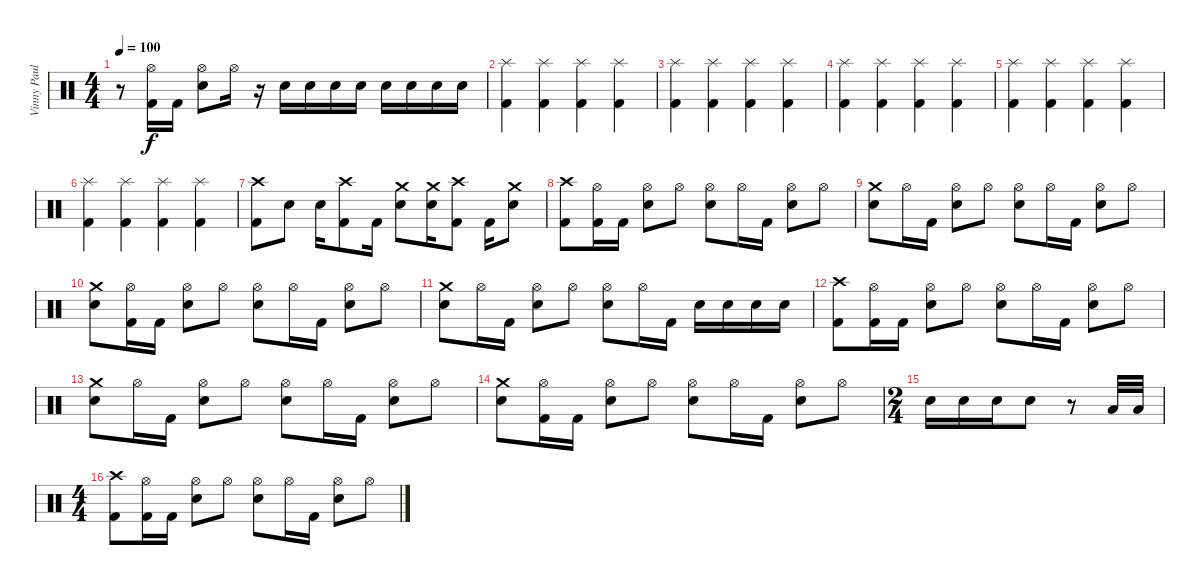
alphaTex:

\track ("Vinny Paul" "Vinny Paul") {instrument percussion}
\staff {score}
\articulation defaults
\ts (4 4)
\tempo 100
\clef neutral
\ks c
r.8{dy f} ("Hi-Hat (open)" "Kick (hit) 2").16 "Kick (hit) 2".16 ("Hi-Hat (open)" "Snare (hit) 2").8 "Hi-Hat (open)".16 r.16 "Snare (hit) 2".16 "Snare (hit) 2".16 "Snare (hit) 2".16 "Snare (hit) 2".16 "Snare (hit) 2".16 "Snare (hit) 2".16 "Snare (hit) 2".16 "Snare (hit) 2".16 |
("Splash (hit)" "Kick (hit) 2").4 ("Splash (hit)" "Kick (hit) 2").4 ("Splash (hit)" "Kick (hit) 2").4 ("Splash (hit)" "Kick (hit) 2").4 |
("Splash (hit)" "Kick (hit) 2").4 ("Splash (hit)" "Kick (hit) 2").4 ("Splash (hit)" "Kick (hit) 2").4 ("Splash (hit)" "Kick (hit) 2").4 |
("Splash (hit)" "Kick (hit) 2").4 ("Splash (hit)" "Kick (hit) 2").4 ("Splash (hit)" "Kick (hit) 2").4 ("Splash (hit)" "Kick (hit) 2").4 |
("Splash (hit)" "Kick (hit) 2").4 ("Splash (hit)" "Kick (hit) 2").4 ("Splash (hit)" "Kick (hit) 2").4 ("Splash (hit)" "Kick (hit) 2").4 |
("Splash (hit)" "Kick (hit) 2").4 ("Splash (hit)" "Kick (hit) 2").4 ("Splash (hit)" "Kick (hit) 2").4 ("Splash (hit)" "Kick (hit) 2").4 |
("Crash high (hit)" "Kick (hit) 2").8 "Snare (hit) 2".8 "Snare (hit) 2".16 ("Crash high (hit)" "Kick (hit) 2").8 "Kick (hit) 2".16 ("Crash medium (hit)" "Snare (hit) 2").8 ("Crash medium (hit)" "Snare (hit) 2").16 ("Crash high (hit)" "Kick (hit) 2").8 "Kick (hit) 2".16 ("Crash medium (hit)" "Snare (hit) 2").8 |
("Crash high (hit)" "Kick (hit) 2").8 ("Hi-Hat (open)" "Kick (hit) 2").16 "Kick (hit) 2".16 ("Hi-Hat (open)" "Snare (hit) 2").8 "Hi-Hat (open)".8 ("Hi-Hat (open)" "Snare (hit) 2").8 "Hi-Hat (open)".16 "Kick (hit) 2".16 ("Hi-Hat (open)" "Snare (hit) 2").8 "Hi-Hat (open)".8 |
("Crash medium (hit)" "Snare (hit) 2").8 "Hi-Hat (open)".16 "Kick (hit) 2".16 ("Hi-Hat (open)" "Snare (hit) 2").8 "Hi-Hat (open)".8 ("Hi-Hat (open)" "Snare (hit) 2").8 "Hi-Hat (open)".16 "Kick (hit) 2".16 ("Hi-Hat (open)" "Snare (hit) 2").8 "Hi-Hat (open)".8 |
("Crash medium (hit)" "Snare (hit) 2").8 ("Hi-Hat (open)" "Kick (hit) 2").16 "Kick (hit) 2".16 ("Hi-Hat (open)" "Snare (hit) 2").8 "Hi-Hat (open)".8 ("Hi-Hat (open)" "Snare (hit) 2").8 "Hi-Hat (open)".16 "Kick (hit) 2".16 ("Hi-Hat (open)" "Snare (hit) 2").8 "Hi-Hat (open)".8 |
("Crash medium (hit)" "Snare (hit) 2").8 "Hi-Hat (open)".16 "Kick (hit) 2".16 ("Hi-Hat (open)" "Snare (hit) 2").8 "Hi-Hat (open)".8 ("Hi-Hat (open)" "Snare (hit) 2").8 "Hi-Hat (open)".16 "Kick (hit) 2".16 "Snare (hit) 2".16 "Snare (hit) 2".16 "Snare (hit) 2".16 "Snare (hit) 2".16 |
("Crash high (hit)" "Kick (hit) 2").8 ("Hi-Hat (open)" "Kick (hit) 2").16 "Kick (hit) 2".16 ("Hi-Hat (open)" "Snare (hit) 2").8 "Hi-Hat (open)".8 ("Hi-Hat (open)" "Snare (hit) 2").8 "Hi-Hat (open)".16 "Kick (hit) 2".16 ("Hi-Hat (open)" "Snare (hit) 2").8 "Hi-Hat (open)".8 |
("Crash medium (hit)" "Snare (hit) 2").8 "Hi-Hat (open)".16 "Kick (hit) 2".16 ("Hi-Hat (open)" "Snare (hit) 2").8 "Hi-Hat (open)".8 ("Hi-Hat (open)" "Snare (hit) 2").8 "Hi-Hat (open)".16 "Kick (hit) 2".16 ("Hi-Hat (open)" "Snare (hit) 2").8 "Hi-Hat (open)".8 |
("Crash medium (hit)" "Snare (hit) 2").8 ("Hi-Hat (open)" "Kick (hit) 2").16 "Kick (hit) 2".16 ("Hi-Hat (open)" "Snare (hit) 2").8 "Hi-Hat (open)".8 ("Hi-Hat (open)" "Snare (hit) 2").8 "Hi-Hat (open)".16 "Kick (hit) 2".16 ("Hi-Hat (open)" "Snare (hit) 2").8 "Hi-Hat (open)".8 |
\ts (2 4)
"Snare (hit) 2".16 "Snare (hit) 2".16 "Snare (hit) 2".16 "Snare (hit) 2".8 r.8 "Low Tom (hit)".32 "Low Tom (hit)".32 |
\ts (4 4)
("Crash high (hit)" "Kick (hit) 2").8 ("Hi-Hat (open)" "Kick (hit) 2").16 "Kick (hit) 2".16 ("Hi-Hat (open)" "Snare (hit) 2").8 "Hi-Hat (open)".8 ("Hi-Hat (open)" "Snare (hit) 2").8 "Hi-Hat (open)".16 "Kick (hit) 2".16 ("Hi-Hat (open)" "Snare (hit) 2").8 "Hi-Hat (open)".8
